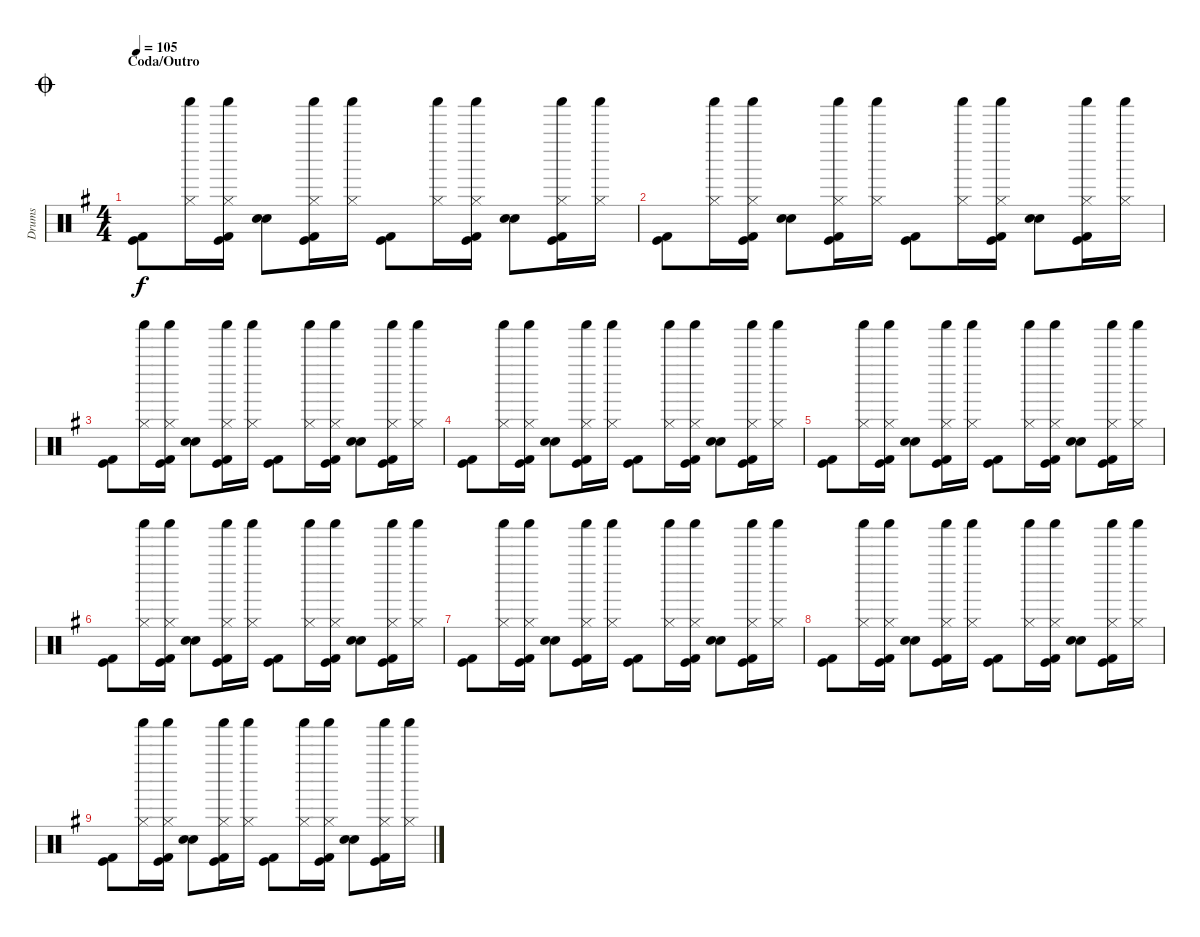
\track ("Drums" "Drums") {instrument percussion}
\staff {score}
\articulation defaults
\ts (4 4)
\section ("" "Coda/Outro")
\jump coda
\tempo 105
\clef neutral
\ks g
("Kick (hit)" "Kick (hit) 2").8{dy f} ("Shaker (hit)" "Hi-Hat (closed)").16 ("Shaker (hit)" "Hi-Hat (closed)" "Kick (hit)" "Kick (hit) 2").16 ("Electric Snare (hit)" "Snare (hit) 2").8 ("Shaker (hit)" "Hi-Hat (closed)" "Kick (hit)" "Kick (hit) 2").16 ("Shaker (hit)" "Hi-Hat (closed)").16 ("Kick (hit)" "Kick (hit) 2").8 ("Shaker (hit)" "Hi-Hat (closed)").16 ("Shaker (hit)" "Hi-Hat (closed)" "Kick (hit)" "Kick (hit) 2").16 ("Electric Snare (hit)" "Snare (hit) 2").8 ("Shaker (hit)" "Hi-Hat (closed)" "Kick (hit)" "Kick (hit) 2").16 ("Shaker (hit)" "Hi-Hat (closed)").16 |
("Kick (hit)" "Kick (hit) 2").8 ("Shaker (hit)" "Hi-Hat (closed)").16 ("Shaker (hit)" "Hi-Hat (closed)" "Kick (hit)" "Kick (hit) 2").16 ("Electric Snare (hit)" "Snare (hit) 2").8 ("Shaker (hit)" "Hi-Hat (closed)" "Kick (hit)" "Kick (hit) 2").16 ("Shaker (hit)" "Hi-Hat (closed)").16 ("Kick (hit)" "Kick (hit) 2").8 ("Shaker (hit)" "Hi-Hat (closed)").16 ("Shaker (hit)" "Hi-Hat (closed)" "Kick (hit)" "Kick (hit) 2").16 ("Electric Snare (hit)" "Snare (hit) 2").8 ("Shaker (hit)" "Hi-Hat (closed)" "Kick (hit)" "Kick (hit) 2").16 ("Shaker (hit)" "Hi-Hat (closed)").16 |
("Kick (hit)" "Kick (hit) 2").8 ("Shaker (hit)" "Hi-Hat (closed)").16 ("Shaker (hit)" "Hi-Hat (closed)" "Kick (hit)" "Kick (hit) 2").16 ("Electric Snare (hit)" "Snare (hit) 2").8 ("Shaker (hit)" "Hi-Hat (closed)" "Kick (hit)" "Kick (hit) 2").16 ("Shaker (hit)" "Hi-Hat (closed)").16 ("Kick (hit)" "Kick (hit) 2").8 ("Shaker (hit)" "Hi-Hat (closed)").16 ("Shaker (hit)" "Hi-Hat (closed)" "Kick (hit)" "Kick (hit) 2").16 ("Electric Snare (hit)" "Snare (hit) 2").8 ("Shaker (hit)" "Hi-Hat (closed)" "Kick (hit)" "Kick (hit) 2").16 ("Shaker (hit)" "Hi-Hat (closed)").16 |
("Kick (hit)" "Kick (hit) 2").8 ("Shaker (hit)" "Hi-Hat (closed)").16 ("Shaker (hit)" "Hi-Hat (closed)" "Kick (hit)" "Kick (hit) 2").16 ("Electric Snare (hit)" "Snare (hit) 2").8 ("Shaker (hit)" "Hi-Hat (closed)" "Kick (hit)" "Kick (hit) 2").16 ("Shaker (hit)" "Hi-Hat (closed)").16 ("Kick (hit)" "Kick (hit) 2").8 ("Shaker (hit)" "Hi-Hat (closed)").16 ("Shaker (hit)" "Hi-Hat (closed)" "Kick (hit)" "Kick (hit) 2").16 ("Electric Snare (hit)" "Snare (hit) 2").8 ("Shaker (hit)" "Hi-Hat (closed)" "Kick (hit)" "Kick (hit) 2").16 ("Shaker (hit)" "Hi-Hat (closed)").16 |
("Kick (hit)" "Kick (hit) 2").8 ("Shaker (hit)" "Hi-Hat (closed)").16 ("Shaker (hit)" "Hi-Hat (closed)" "Kick (hit)" "Kick (hit) 2").16 ("Electric Snare (hit)" "Snare (hit) 2").8 ("Shaker (hit)" "Hi-Hat (closed)" "Kick (hit)" "Kick (hit) 2").16 ("Shaker (hit)" "Hi-Hat (closed)").16 ("Kick (hit)" "Kick (hit) 2").8 ("Shaker (hit)" "Hi-Hat (closed)").16 ("Shaker (hit)" "Hi-Hat (closed)" "Kick (hit)" "Kick (hit) 2").16 ("Electric Snare (hit)" "Snare (hit) 2").8 ("Shaker (hit)" "Hi-Hat (closed)" "Kick (hit)" "Kick (hit) 2").16 ("Shaker (hit)" "Hi-Hat (closed)").16 |
("Kick (hit)" "Kick (hit) 2").8 ("Shaker (hit)" "Hi-Hat (closed)").16 ("Shaker (hit)" "Hi-Hat (closed)" "Kick (hit)" "Kick (hit) 2").16 ("Electric Snare (hit)" "Snare (hit) 2").8 ("Shaker (hit)" "Hi-Hat (closed)" "Kick (hit)" "Kick (hit) 2").16 ("Shaker (hit)" "Hi-Hat (closed)").16 ("Kick (hit)" "Kick (hit) 2").8 ("Shaker (hit)" "Hi-Hat (closed)").16 ("Shaker (hit)" "Hi-Hat (closed)" "Kick (hit)" "Kick (hit) 2").16 ("Electric Snare (hit)" "Snare (hit) 2").8 ("Shaker (hit)" "Hi-Hat (closed)" "Kick (hit)" "Kick (hit) 2").16 ("Shaker (hit)" "Hi-Hat (closed)").16 |
("Kick (hit)" "Kick (hit) 2").8 ("Shaker (hit)" "Hi-Hat (closed)").16 ("Shaker (hit)" "Hi-Hat (closed)" "Kick (hit)" "Kick (hit) 2").16 ("Electric Snare (hit)" "Snare (hit) 2").8 ("Shaker (hit)" "Hi-Hat (closed)" "Kick (hit)" "Kick (hit) 2").16 ("Shaker (hit)" "Hi-Hat (closed)").16 ("Kick (hit)" "Kick (hit) 2").8 ("Shaker (hit)" "Hi-Hat (closed)").16 ("Shaker (hit)" "Hi-Hat (closed)" "Kick (hit)" "Kick (hit) 2").16 ("Electric Snare (hit)" "Snare (hit) 2").8 ("Shaker (hit)" "Hi-Hat (closed)" "Kick (hit)" "Kick (hit) 2").16 ("Shaker (hit)" "Hi-Hat (closed)").16 |
("Kick (hit)" "Kick (hit) 2").8 ("Shaker (hit)" "Hi-Hat (closed)").16 ("Shaker (hit)" "Hi-Hat (closed)" "Kick (hit)" "Kick (hit) 2").16 ("Electric Snare (hit)" "Snare (hit) 2").8 ("Shaker (hit)" "Hi-Hat (closed)" "Kick (hit)" "Kick (hit) 2").16 ("Shaker (hit)" "Hi-Hat (closed)").16 ("Kick (hit)" "Kick (hit) 2").8 ("Shaker (hit)" "Hi-Hat (closed)").16 ("Shaker (hit)" "Hi-Hat (closed)" "Kick (hit)" "Kick (hit) 2").16 ("Electric Snare (hit)" "Snare (hit) 2").8 ("Shaker (hit)" "Hi-Hat (closed)" "Kick (hit)" "Kick (hit) 2").16 ("Shaker (hit)" "Hi-Hat (closed)").16 |
("Kick (hit)" "Kick (hit) 2").8 ("Shaker (hit)" "Hi-Hat (closed)").16 ("Shaker (hit)" "Hi-Hat (closed)" "Kick (hit)" "Kick (hit) 2").16 ("Electric Snare (hit)" "Snare (hit) 2").8 ("Shaker (hit)" "Hi-Hat (closed)" "Kick (hit)" "Kick (hit) 2").16 ("Shaker (hit)" "Hi-Hat (closed)").16 ("Kick (hit)" "Kick (hit) 2").8 ("Shaker (hit)" "Hi-Hat (closed)").16 ("Shaker (hit)" "Hi-Hat (closed)" "Kick (hit)" "Kick (hit) 2").16 ("Electric Snare (hit)" "Snare (hit) 2").8 ("Shaker (hit)" "Hi-Hat (closed)" "Kick (hit)" "Kick (hit) 2").16 ("Shaker (hit)" "Hi-Hat (closed)").16
